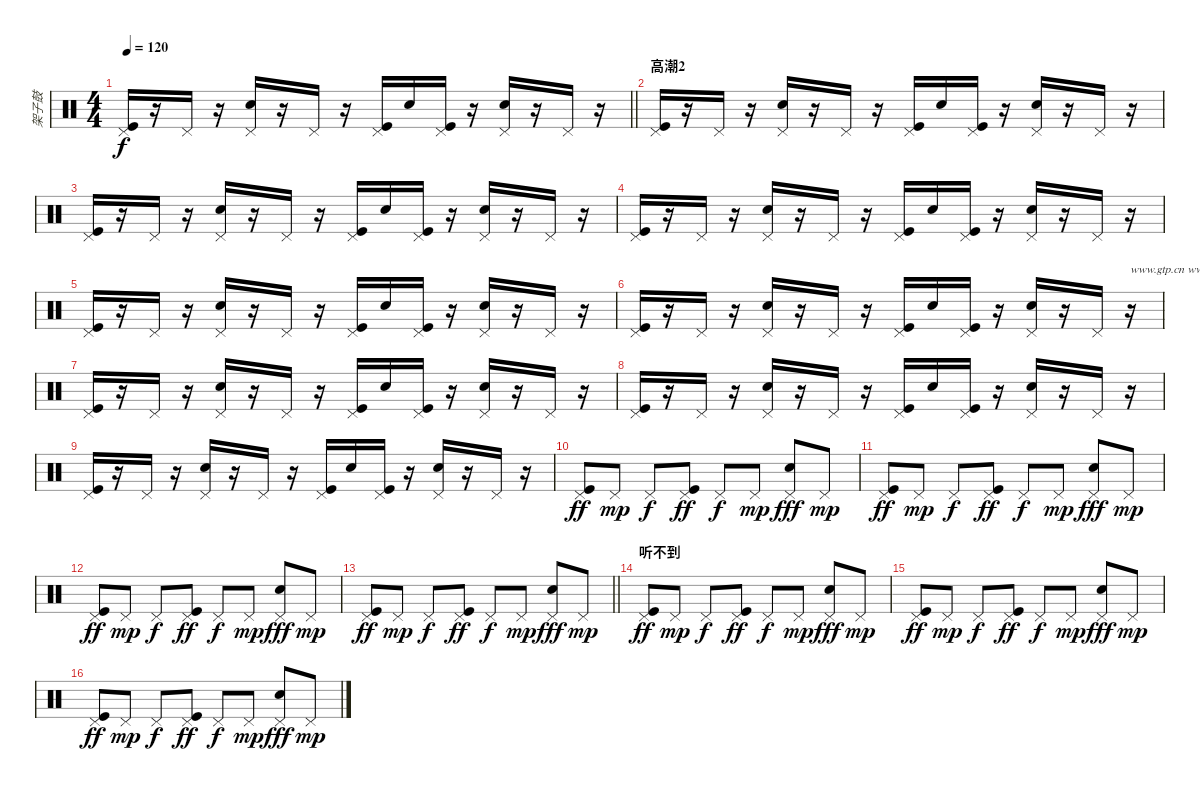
\track ("架子鼓" "架子鼓") {instrument percussion}
\staff {score}
\articulation defaults
\ts (4 4)
\tempo 120
\clef neutral
\barLineRight lightlight
\ks c
("Pedal Hi-Hat (hit)" "Kick (hit)").16{dy f} r.16 "Pedal Hi-Hat (hit)".16 r.16 ("Pedal Hi-Hat (hit)" "Snare (hit) 2").16 r.16 "Pedal Hi-Hat (hit)".16 r.16 ("Pedal Hi-Hat (hit)" "Kick (hit)").16 "Snare (hit) 2".16 ("Pedal Hi-Hat (hit)" "Kick (hit)").16 r.16 ("Pedal Hi-Hat (hit)" "Snare (hit) 2").16 r.16 "Pedal Hi-Hat (hit)".16 r.16 |
\section ("" "高潮2")
("Pedal Hi-Hat (hit)" "Kick (hit)").16 r.16 "Pedal Hi-Hat (hit)".16 r.16 ("Pedal Hi-Hat (hit)" "Snare (hit) 2").16 r.16 "Pedal Hi-Hat (hit)".16 r.16 ("Pedal Hi-Hat (hit)" "Kick (hit)").16 "Snare (hit) 2".16 ("Pedal Hi-Hat (hit)" "Kick (hit)").16 r.16 ("Pedal Hi-Hat (hit)" "Snare (hit) 2").16 r.16 "Pedal Hi-Hat (hit)".16 r.16 |
("Pedal Hi-Hat (hit)" "Kick (hit)").16 r.16 "Pedal Hi-Hat (hit)".16 r.16 ("Pedal Hi-Hat (hit)" "Snare (hit) 2").16 r.16 "Pedal Hi-Hat (hit)".16 r.16 ("Pedal Hi-Hat (hit)" "Kick (hit)").16 "Snare (hit) 2".16 ("Pedal Hi-Hat (hit)" "Kick (hit)").16 r.16 ("Pedal Hi-Hat (hit)" "Snare (hit) 2").16 r.16 "Pedal Hi-Hat (hit)".16 r.16 |
("Pedal Hi-Hat (hit)" "Kick (hit)").16 r.16 "Pedal Hi-Hat (hit)".16 r.16 ("Pedal Hi-Hat (hit)" "Snare (hit) 2").16 r.16 "Pedal Hi-Hat (hit)".16 r.16 ("Pedal Hi-Hat (hit)" "Kick (hit)").16 "Snare (hit) 2".16 ("Pedal Hi-Hat (hit)" "Kick (hit)").16 r.16 ("Pedal Hi-Hat (hit)" "Snare (hit) 2").16 r.16 "Pedal Hi-Hat (hit)".16 r.16 |
("Pedal Hi-Hat (hit)" "Kick (hit)").16 r.16 "Pedal Hi-Hat (hit)".16 r.16 ("Pedal Hi-Hat (hit)" "Snare (hit) 2").16 r.16 "Pedal Hi-Hat (hit)".16 r.16 ("Pedal Hi-Hat (hit)" "Kick (hit)").16 "Snare (hit) 2".16 ("Pedal Hi-Hat (hit)" "Kick (hit)").16 r.16 ("Pedal Hi-Hat (hit)" "Snare (hit) 2").16 r.16 "Pedal Hi-Hat (hit)".16 r.16 |
("Pedal Hi-Hat (hit)" "Kick (hit)").16 r.16 "Pedal Hi-Hat (hit)".16 r.16 ("Pedal Hi-Hat (hit)" "Snare (hit) 2").16 r.16 "Pedal Hi-Hat (hit)".16 r.16 ("Pedal Hi-Hat (hit)" "Kick (hit)").16 "Snare (hit) 2".16 ("Pedal Hi-Hat (hit)" "Kick (hit)").16 r.16 ("Pedal Hi-Hat (hit)" "Snare (hit) 2").16 r.16 "Pedal Hi-Hat (hit)".16 r.16{txt "www.gtp.cn www.51gtp.com联合为您提供优秀的GTP!"} |
("Pedal Hi-Hat (hit)" "Kick (hit)").16 r.16 "Pedal Hi-Hat (hit)".16 r.16 ("Pedal Hi-Hat (hit)" "Snare (hit) 2").16 r.16 "Pedal Hi-Hat (hit)".16 r.16 ("Pedal Hi-Hat (hit)" "Kick (hit)").16 "Snare (hit) 2".16 ("Pedal Hi-Hat (hit)" "Kick (hit)").16 r.16 ("Pedal Hi-Hat (hit)" "Snare (hit) 2").16 r.16 "Pedal Hi-Hat (hit)".16 r.16 |
("Pedal Hi-Hat (hit)" "Kick (hit)").16 r.16 "Pedal Hi-Hat (hit)".16 r.16 ("Pedal Hi-Hat (hit)" "Snare (hit) 2").16 r.16 "Pedal Hi-Hat (hit)".16 r.16 ("Pedal Hi-Hat (hit)" "Kick (hit)").16 "Snare (hit) 2".16 ("Pedal Hi-Hat (hit)" "Kick (hit)").16 r.16 ("Pedal Hi-Hat (hit)" "Snare (hit) 2").16 r.16 "Pedal Hi-Hat (hit)".16 r.16 |
("Pedal Hi-Hat (hit)" "Kick (hit)").16 r.16 "Pedal Hi-Hat (hit)".16 r.16 ("Pedal Hi-Hat (hit)" "Snare (hit) 2").16 r.16 "Pedal Hi-Hat (hit)".16 r.16 ("Pedal Hi-Hat (hit)" "Kick (hit)").16 "Snare (hit) 2".16 ("Pedal Hi-Hat (hit)" "Kick (hit)").16 r.16 ("Pedal Hi-Hat (hit)" "Snare (hit) 2").16 r.16 "Pedal Hi-Hat (hit)".16 r.16 |
("Pedal Hi-Hat (hit)" "Kick (hit)").8{dy ff} "Pedal Hi-Hat (hit)".8{dy mp} "Pedal Hi-Hat (hit)".8{dy f} ("Pedal Hi-Hat (hit)" "Kick (hit)").8{dy ff} "Pedal Hi-Hat (hit)".8{dy f} "Pedal Hi-Hat (hit)".8{dy mp} ("Pedal Hi-Hat (hit)" "Snare (hit) 2").8{dy fff} "Pedal Hi-Hat (hit)".8{dy mp} |
("Pedal Hi-Hat (hit)" "Kick (hit)").8{dy ff} "Pedal Hi-Hat (hit)".8{dy mp} "Pedal Hi-Hat (hit)".8{dy f} ("Pedal Hi-Hat (hit)" "Kick (hit)").8{dy ff} "Pedal Hi-Hat (hit)".8{dy f} "Pedal Hi-Hat (hit)".8{dy mp} ("Pedal Hi-Hat (hit)" "Snare (hit) 2").8{dy fff} "Pedal Hi-Hat (hit)".8{dy mp} |
("Pedal Hi-Hat (hit)" "Kick (hit)").8{dy ff} "Pedal Hi-Hat (hit)".8{dy mp} "Pedal Hi-Hat (hit)".8{dy f} ("Pedal Hi-Hat (hit)" "Kick (hit)").8{dy ff} "Pedal Hi-Hat (hit)".8{dy f} "Pedal Hi-Hat (hit)".8{dy mp} ("Pedal Hi-Hat (hit)" "Snare (hit) 2").8{dy fff} "Pedal Hi-Hat (hit)".8{dy mp} |
\barLineRight lightlight
("Pedal Hi-Hat (hit)" "Kick (hit)").8{dy ff} "Pedal Hi-Hat (hit)".8{dy mp} "Pedal Hi-Hat (hit)".8{dy f} ("Pedal Hi-Hat (hit)" "Kick (hit)").8{dy ff} "Pedal Hi-Hat (hit)".8{dy f} "Pedal Hi-Hat (hit)".8{dy mp} ("Pedal Hi-Hat (hit)" "Snare (hit) 2").8{dy fff} "Pedal Hi-Hat (hit)".8{dy mp} |
\section ("" "听不到")
("Pedal Hi-Hat (hit)" "Kick (hit)").8{dy ff} "Pedal Hi-Hat (hit)".8{dy mp} "Pedal Hi-Hat (hit)".8{dy f} ("Pedal Hi-Hat (hit)" "Kick (hit)").8{dy ff} "Pedal Hi-Hat (hit)".8{dy f} "Pedal Hi-Hat (hit)".8{dy mp} ("Pedal Hi-Hat (hit)" "Snare (hit) 2").8{dy fff} "Pedal Hi-Hat (hit)".8{dy mp} |
("Pedal Hi-Hat (hit)" "Kick (hit)").8{dy ff} "Pedal Hi-Hat (hit)".8{dy mp} "Pedal Hi-Hat (hit)".8{dy f} ("Pedal Hi-Hat (hit)" "Kick (hit)").8{dy ff} "Pedal Hi-Hat (hit)".8{dy f} "Pedal Hi-Hat (hit)".8{dy mp} ("Pedal Hi-Hat (hit)" "Snare (hit) 2").8{dy fff} "Pedal Hi-Hat (hit)".8{dy mp} |
("Pedal Hi-Hat (hit)" "Kick (hit)").8{dy ff} "Pedal Hi-Hat (hit)".8{dy mp} "Pedal Hi-Hat (hit)".8{dy f} ("Pedal Hi-Hat (hit)" "Kick (hit)").8{dy ff} "Pedal Hi-Hat (hit)".8{dy f} "Pedal Hi-Hat (hit)".8{dy mp} ("Pedal Hi-Hat (hit)" "Snare (hit) 2").8{dy fff} "Pedal Hi-Hat (hit)".8{dy mp}
